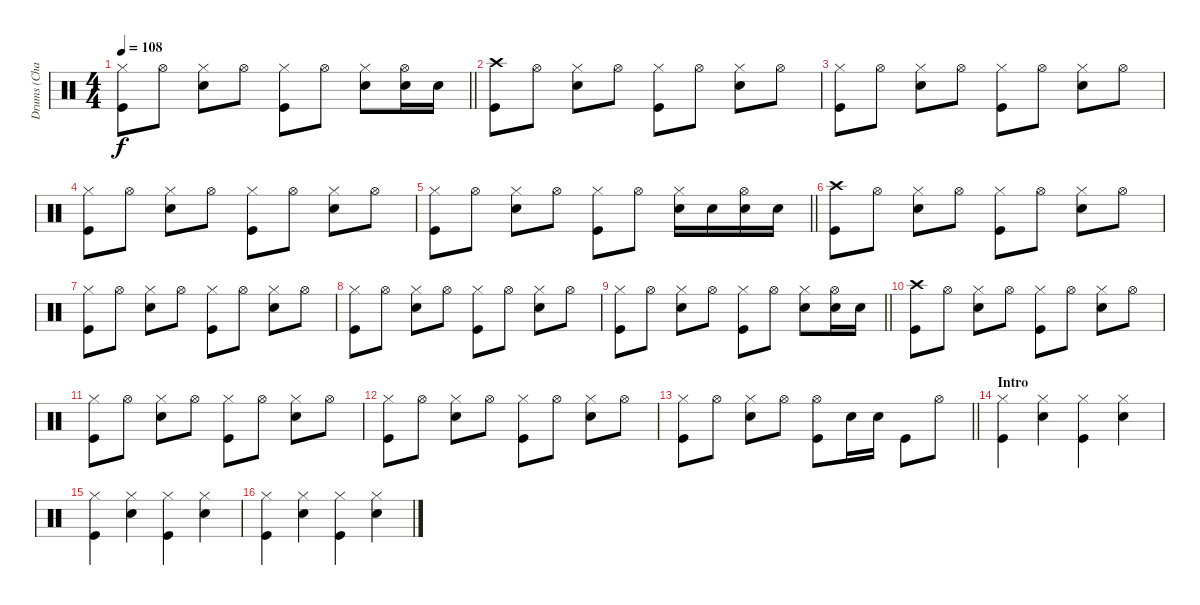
\track ("Drums (Chad Smith)" "Drums (Cha") {instrument percussion}
\staff {score}
\articulation defaults
\ts (4 4)
\tempo 108
\clef neutral
\barLineRight lightlight
\ks c
("Hi-Hat (closed)" "Kick (hit)").8{dy f} "Hi-Hat (open)".8 ("Hi-Hat (closed)" "Snare (hit) 2").8 "Hi-Hat (open)".8 ("Hi-Hat (closed)" "Kick (hit)").8 "Hi-Hat (open)".8 ("Hi-Hat (closed)" "Snare (hit) 2").8 ("Hi-Hat (open)" "Snare (hit) 2").16 "Snare (hit) 2".16 |
("Crash high (hit)" "Kick (hit)").8 "Hi-Hat (open)".8 ("Hi-Hat (closed)" "Snare (hit) 2").8 "Hi-Hat (open)".8 ("Hi-Hat (closed)" "Kick (hit)").8 "Hi-Hat (open)".8 ("Hi-Hat (closed)" "Snare (hit) 2").8 "Hi-Hat (open)".8 |
("Hi-Hat (closed)" "Kick (hit)").8 "Hi-Hat (open)".8 ("Hi-Hat (closed)" "Snare (hit) 2").8 "Hi-Hat (open)".8 ("Hi-Hat (closed)" "Kick (hit)").8 "Hi-Hat (open)".8 ("Hi-Hat (closed)" "Snare (hit) 2").8 "Hi-Hat (open)".8 |
("Hi-Hat (closed)" "Kick (hit)").8 "Hi-Hat (open)".8 ("Hi-Hat (closed)" "Snare (hit) 2").8 "Hi-Hat (open)".8 ("Hi-Hat (closed)" "Kick (hit)").8 "Hi-Hat (open)".8 ("Hi-Hat (closed)" "Snare (hit) 2").8 "Hi-Hat (open)".8 |
\barLineRight lightlight
("Hi-Hat (closed)" "Kick (hit)").8 "Hi-Hat (open)".8 ("Hi-Hat (closed)" "Snare (hit) 2").8 "Hi-Hat (open)".8 ("Hi-Hat (closed)" "Kick (hit)").8 "Hi-Hat (open)".8 ("Hi-Hat (closed)" "Snare (hit) 2").16 "Snare (hit) 2".16 ("Hi-Hat (open)" "Snare (hit) 2").16 "Snare (hit) 2".16 |
("Crash high (hit)" "Kick (hit)").8 "Hi-Hat (open)".8 ("Hi-Hat (closed)" "Snare (hit) 2").8 "Hi-Hat (open)".8 ("Hi-Hat (closed)" "Kick (hit)").8 "Hi-Hat (open)".8 ("Hi-Hat (closed)" "Snare (hit) 2").8 "Hi-Hat (open)".8 |
("Hi-Hat (closed)" "Kick (hit)").8 "Hi-Hat (open)".8 ("Hi-Hat (closed)" "Snare (hit) 2").8 "Hi-Hat (open)".8 ("Hi-Hat (closed)" "Kick (hit)").8 "Hi-Hat (open)".8 ("Hi-Hat (closed)" "Snare (hit) 2").8 "Hi-Hat (open)".8 |
("Hi-Hat (closed)" "Kick (hit)").8 "Hi-Hat (open)".8 ("Hi-Hat (closed)" "Snare (hit) 2").8 "Hi-Hat (open)".8 ("Hi-Hat (closed)" "Kick (hit)").8 "Hi-Hat (open)".8 ("Hi-Hat (closed)" "Snare (hit) 2").8 "Hi-Hat (open)".8 |
\barLineRight lightlight
("Hi-Hat (closed)" "Kick (hit)").8 "Hi-Hat (open)".8 ("Hi-Hat (closed)" "Snare (hit) 2").8 "Hi-Hat (open)".8 ("Hi-Hat (closed)" "Kick (hit)").8 "Hi-Hat (open)".8 ("Hi-Hat (closed)" "Snare (hit) 2").8 ("Hi-Hat (open)" "Snare (hit) 2").16 "Snare (hit) 2".16 |
("Crash high (hit)" "Kick (hit)").8 "Hi-Hat (open)".8 ("Hi-Hat (closed)" "Snare (hit) 2").8 "Hi-Hat (open)".8 ("Hi-Hat (closed)" "Kick (hit)").8 "Hi-Hat (open)".8 ("Hi-Hat (closed)" "Snare (hit) 2").8 "Hi-Hat (open)".8 |
("Hi-Hat (closed)" "Kick (hit)").8 "Hi-Hat (open)".8 ("Hi-Hat (closed)" "Snare (hit) 2").8 "Hi-Hat (open)".8 ("Hi-Hat (closed)" "Kick (hit)").8 "Hi-Hat (open)".8 ("Hi-Hat (closed)" "Snare (hit) 2").8 "Hi-Hat (open)".8 |
("Hi-Hat (closed)" "Kick (hit)").8 "Hi-Hat (open)".8 ("Hi-Hat (closed)" "Snare (hit) 2").8 "Hi-Hat (open)".8 ("Hi-Hat (closed)" "Kick (hit)").8 "Hi-Hat (open)".8 ("Hi-Hat (closed)" "Snare (hit) 2").8 "Hi-Hat (open)".8 |
\barLineRight lightlight
("Hi-Hat (closed)" "Kick (hit)").8 "Hi-Hat (open)".8 ("Hi-Hat (closed)" "Snare (hit) 2").8 "Hi-Hat (open)".8 ("Hi-Hat (open)" "Kick (hit)").8 "Snare (hit) 2".16 "Snare (hit) 2".16 "Kick (hit)".8 "Hi-Hat (open)".8 |
\section ("" "Intro")
("Hi-Hat (closed)" "Kick (hit)").4 ("Hi-Hat (closed)" "Snare (hit) 2").4 ("Hi-Hat (closed)" "Kick (hit)").4 ("Hi-Hat (closed)" "Snare (hit) 2").4 |
("Hi-Hat (closed)" "Kick (hit)").4 ("Hi-Hat (closed)" "Snare (hit) 2").4 ("Hi-Hat (closed)" "Kick (hit)").4 ("Hi-Hat (closed)" "Snare (hit) 2").4 |
("Hi-Hat (closed)" "Kick (hit)").4 ("Hi-Hat (closed)" "Snare (hit) 2").4 ("Hi-Hat (closed)" "Kick (hit)").4 ("Hi-Hat (closed)" "Snare (hit) 2").4
